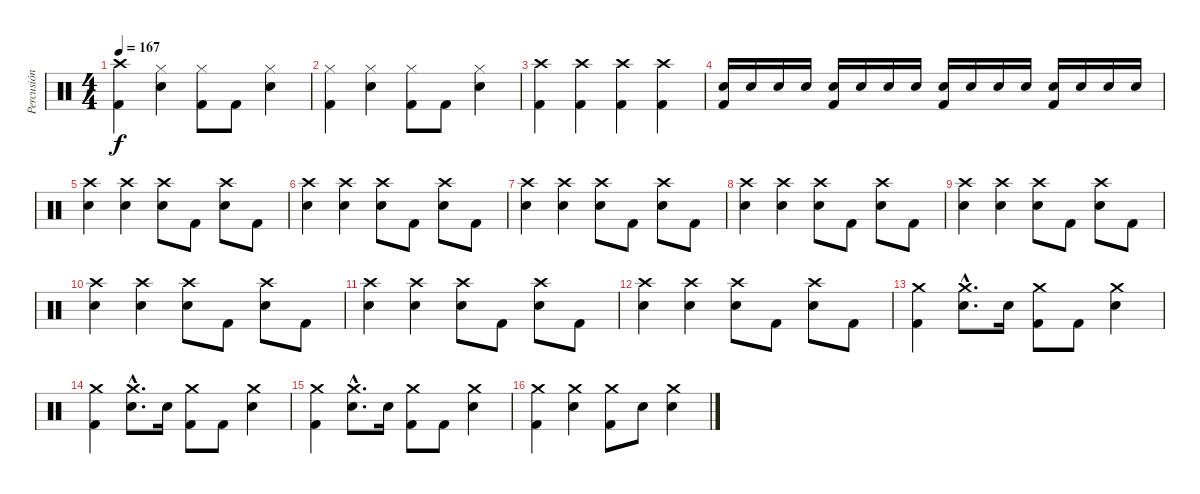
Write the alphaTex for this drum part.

\track ("Percusión" "Percusión") {instrument percussion}
\staff {score}
\articulation defaults
\ts (4 4)
\tempo 167
\clef neutral
\ks c
("Crash high (hit)" "Kick (hit) 2").4{dy f} ("Hi-Hat (closed)" "Electric Snare (hit)").4 ("Hi-Hat (closed)" "Kick (hit) 2").8 "Kick (hit) 2".8 ("Hi-Hat (closed)" "Electric Snare (hit)").4 |
("Hi-Hat (closed)" "Kick (hit) 2").4 ("Hi-Hat (closed)" "Electric Snare (hit)").4 ("Hi-Hat (closed)" "Kick (hit) 2").8 "Kick (hit) 2".8 ("Hi-Hat (closed)" "Electric Snare (hit)").4 |
("Crash high (hit)" "Kick (hit) 2").4 ("Crash high (hit)" "Kick (hit) 2").4 ("Crash high (hit)" "Kick (hit) 2").4 ("Crash high (hit)" "Kick (hit) 2").4 |
("Electric Snare (hit)" "Kick (hit) 2").16 "Electric Snare (hit)".16 "Electric Snare (hit)".16 "Electric Snare (hit)".16 ("Electric Snare (hit)" "Kick (hit) 2").16 "Electric Snare (hit)".16 "Electric Snare (hit)".16 "Electric Snare (hit)".16 ("Electric Snare (hit)" "Kick (hit) 2").16 "Electric Snare (hit)".16 "Electric Snare (hit)".16 "Electric Snare (hit)".16 ("Electric Snare (hit)" "Kick (hit) 2").16 "Electric Snare (hit)".16 "Electric Snare (hit)".16 "Electric Snare (hit)".16 |
("Crash high (hit)" "Electric Snare (hit)").4 ("Crash high (hit)" "Electric Snare (hit)").4 ("Crash high (hit)" "Electric Snare (hit)").8 "Kick (hit) 2".8 ("Crash high (hit)" "Electric Snare (hit)").8 "Kick (hit) 2".8 |
("Crash high (hit)" "Electric Snare (hit)").4 ("Crash high (hit)" "Electric Snare (hit)").4 ("Crash high (hit)" "Electric Snare (hit)").8 "Kick (hit) 2".8 ("Crash high (hit)" "Electric Snare (hit)").8 "Kick (hit) 2".8 |
("Crash high (hit)" "Electric Snare (hit)").4 ("Crash high (hit)" "Electric Snare (hit)").4 ("Crash high (hit)" "Electric Snare (hit)").8 "Kick (hit) 2".8 ("Crash high (hit)" "Electric Snare (hit)").8 "Kick (hit) 2".8 |
("Crash high (hit)" "Electric Snare (hit)").4 ("Crash high (hit)" "Electric Snare (hit)").4 ("Crash high (hit)" "Electric Snare (hit)").8 "Kick (hit) 2".8 ("Crash high (hit)" "Electric Snare (hit)").8 "Kick (hit) 2".8 |
("Crash high (hit)" "Electric Snare (hit)").4 ("Crash high (hit)" "Electric Snare (hit)").4 ("Crash high (hit)" "Electric Snare (hit)").8 "Kick (hit) 2".8 ("Crash high (hit)" "Electric Snare (hit)").8 "Kick (hit) 2".8 |
("Crash high (hit)" "Electric Snare (hit)").4 ("Crash high (hit)" "Electric Snare (hit)").4 ("Crash high (hit)" "Electric Snare (hit)").8 "Kick (hit) 2".8 ("Crash high (hit)" "Electric Snare (hit)").8 "Kick (hit) 2".8 |
("Crash high (hit)" "Electric Snare (hit)").4 ("Crash high (hit)" "Electric Snare (hit)").4 ("Crash high (hit)" "Electric Snare (hit)").8 "Kick (hit) 2".8 ("Crash high (hit)" "Electric Snare (hit)").8 "Kick (hit) 2".8 |
("Crash high (hit)" "Electric Snare (hit)").4 ("Crash high (hit)" "Electric Snare (hit)").4 ("Crash high (hit)" "Electric Snare (hit)").8 "Kick (hit) 2".8 ("Crash high (hit)" "Electric Snare (hit)").8 "Kick (hit) 2".8 |
("Crash medium (hit)" "Kick (hit) 2").4 ("Crash medium (hit)"{hac} "Electric Snare (hit)"{hac}).8{d} "Electric Snare (hit)".16 ("Crash medium (hit)" "Kick (hit) 2").8 "Kick (hit) 2".8 ("Crash medium (hit)" "Electric Snare (hit)").4 |
("Crash medium (hit)" "Kick (hit) 2").4 ("Crash medium (hit)"{hac} "Electric Snare (hit)"{hac}).8{d} "Electric Snare (hit)".16 ("Crash medium (hit)" "Kick (hit) 2").8 "Kick (hit) 2".8 ("Crash medium (hit)" "Electric Snare (hit)").4 |
("Crash medium (hit)" "Kick (hit) 2").4 ("Crash medium (hit)"{hac} "Electric Snare (hit)"{hac}).8{d} "Electric Snare (hit)".16 ("Crash medium (hit)" "Kick (hit) 2").8 "Kick (hit) 2".8 ("Crash medium (hit)" "Electric Snare (hit)").4 |
("Crash medium (hit)" "Kick (hit) 2").4 ("Crash medium (hit)" "Electric Snare (hit)").4 ("Crash medium (hit)" "Kick (hit) 2").8 "Electric Snare (hit)".8 ("Crash medium (hit)" "Electric Snare (hit)").4
